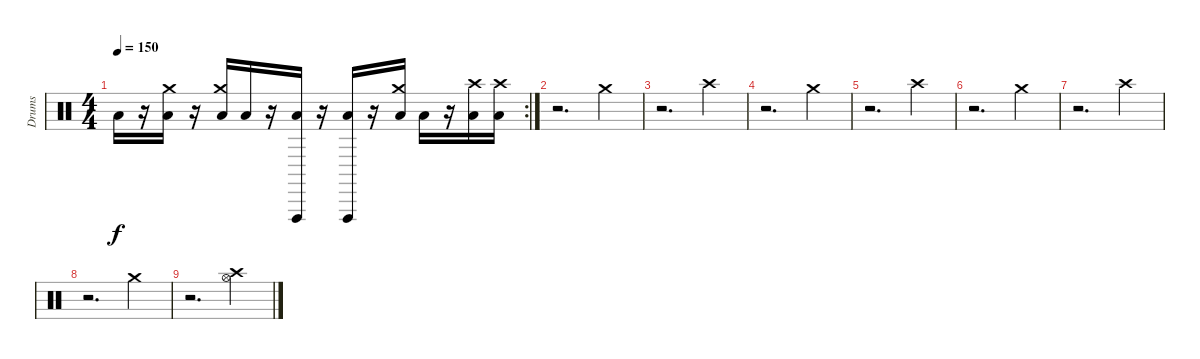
\track ("Drums" "Drums") {instrument percussion}
\staff {score}
\articulation defaults
\rc 2
\ts (4 4)
\tempo 150
\clef neutral
\ks c "Low Floor Tom (hit)".16{dy f}
r.16 ("Crash medium (hit)" "Low Floor Tom (hit)").16 r.16 ("Crash medium (hit)" "Low Floor Tom (hit)").16 "Low Floor Tom (hit)".16 r.16 ("Vibraslap (hit)" "Low Floor Tom (hit)").16 r.16 ("Vibraslap (hit)" "Low Floor Tom (hit)").16 r.16 ("Crash medium (hit)" "Low Floor Tom (hit)").16 "Low Floor Tom (hit)".16 r.16 ("Crash high (hit)" "Low Floor Tom (hit)").16 ("Crash high (hit)" "Low Floor Tom (hit)").16 |
r.2{d} "Crash medium (hit)".4 |
r.2{d} "Crash high (hit)".4 |
r.2{d} "Crash medium (hit)".4 |
r.2{d} "Crash high (hit)".4 |
r.2{d} "Crash medium (hit)".4 |
r.2{d} "Crash high (hit)".4 |
r.2{d} "Crash medium (hit)".4 |
r.2{d volume 2} ("Crash high (hit)" "Hi-Hat (open)").4
